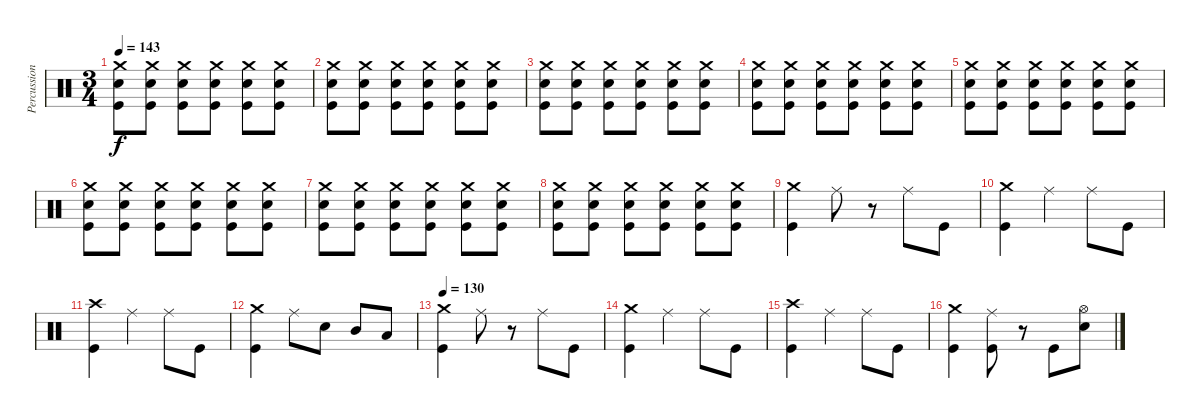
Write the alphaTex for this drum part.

\track ("Percussion" "Percussion") {instrument percussion}
\staff {score}
\articulation defaults
\ts (3 4)
\tempo 143
\clef neutral
\ks c
("Crash medium (hit)" "Kick (hit)" "Electric Snare (hit)").8{dy f} ("Crash medium (hit)" "Kick (hit)" "Electric Snare (hit)").8 ("Crash medium (hit)" "Kick (hit)" "Electric Snare (hit)").8 ("Crash medium (hit)" "Kick (hit)" "Electric Snare (hit)").8 ("Crash medium (hit)" "Kick (hit)" "Electric Snare (hit)").8 ("Crash medium (hit)" "Kick (hit)" "Electric Snare (hit)").8 |
("Crash medium (hit)" "Kick (hit)" "Electric Snare (hit)").8 ("Crash medium (hit)" "Kick (hit)" "Electric Snare (hit)").8 ("Crash medium (hit)" "Kick (hit)" "Electric Snare (hit)").8 ("Crash medium (hit)" "Kick (hit)" "Electric Snare (hit)").8 ("Crash medium (hit)" "Kick (hit)" "Electric Snare (hit)").8 ("Crash medium (hit)" "Kick (hit)" "Electric Snare (hit)").8 |
("Crash medium (hit)" "Kick (hit)" "Electric Snare (hit)").8 ("Crash medium (hit)" "Kick (hit)" "Electric Snare (hit)").8 ("Crash medium (hit)" "Kick (hit)" "Electric Snare (hit)").8 ("Crash medium (hit)" "Kick (hit)" "Electric Snare (hit)").8 ("Crash medium (hit)" "Kick (hit)" "Electric Snare (hit)").8 ("Crash medium (hit)" "Kick (hit)" "Electric Snare (hit)").8 |
("Crash medium (hit)" "Kick (hit)" "Electric Snare (hit)").8 ("Crash medium (hit)" "Kick (hit)" "Electric Snare (hit)").8 ("Crash medium (hit)" "Kick (hit)" "Electric Snare (hit)").8 ("Crash medium (hit)" "Kick (hit)" "Electric Snare (hit)").8 ("Crash medium (hit)" "Kick (hit)" "Electric Snare (hit)").8 ("Crash medium (hit)" "Kick (hit)" "Electric Snare (hit)").8 |
("Crash medium (hit)" "Kick (hit)" "Electric Snare (hit)").8 ("Crash medium (hit)" "Kick (hit)" "Electric Snare (hit)").8 ("Crash medium (hit)" "Kick (hit)" "Electric Snare (hit)").8 ("Crash medium (hit)" "Kick (hit)" "Electric Snare (hit)").8 ("Crash medium (hit)" "Kick (hit)" "Electric Snare (hit)").8 ("Crash medium (hit)" "Kick (hit)" "Electric Snare (hit)").8 |
("Crash medium (hit)" "Kick (hit)" "Electric Snare (hit)").8 ("Crash medium (hit)" "Kick (hit)" "Electric Snare (hit)").8 ("Crash medium (hit)" "Kick (hit)" "Electric Snare (hit)").8 ("Crash medium (hit)" "Kick (hit)" "Electric Snare (hit)").8 ("Crash medium (hit)" "Kick (hit)" "Electric Snare (hit)").8 ("Crash medium (hit)" "Kick (hit)" "Electric Snare (hit)").8 |
("Crash medium (hit)" "Kick (hit)" "Electric Snare (hit)").8 ("Crash medium (hit)" "Kick (hit)" "Electric Snare (hit)").8 ("Crash medium (hit)" "Kick (hit)" "Electric Snare (hit)").8 ("Crash medium (hit)" "Kick (hit)" "Electric Snare (hit)").8 ("Crash medium (hit)" "Kick (hit)" "Electric Snare (hit)").8 ("Crash medium (hit)" "Kick (hit)" "Electric Snare (hit)").8 |
("Crash medium (hit)" "Kick (hit)" "Electric Snare (hit)").8 ("Crash medium (hit)" "Kick (hit)" "Electric Snare (hit)").8 ("Crash medium (hit)" "Kick (hit)" "Electric Snare (hit)").8 ("Crash medium (hit)" "Kick (hit)" "Electric Snare (hit)").8 ("Crash medium (hit)" "Kick (hit)" "Electric Snare (hit)").8 ("Crash medium (hit)" "Kick (hit)" "Electric Snare (hit)").8 |
("Crash medium (hit)" "Kick (hit)").4 "Ride (middle)".8 r.8 "Ride (middle)".8 "Kick (hit)".8 |
("Crash medium (hit)" "Kick (hit)").4 "Ride (middle)".4 "Ride (middle)".8 "Kick (hit)".8 |
("Crash high (hit)" "Kick (hit)").4 "Ride (middle)".4 "Ride (middle)".8 "Kick (hit)".8 |
("Crash medium (hit)" "Kick (hit)").4 "Ride (middle)".8 "Electric Snare (hit)".8 "Mid Tom (hit)".8 "Low Tom (hit)".8 |
\tempo 130
("Crash medium (hit)" "Kick (hit)").4 "Ride (middle)".8 r.8 "Ride (middle)".8 "Kick (hit)".8 |
("Crash medium (hit)" "Kick (hit)").4 "Ride (middle)".4 "Ride (middle)".8 "Kick (hit)".8 |
("Crash high (hit)" "Kick (hit)").4 "Ride (middle)".4 "Ride (middle)".8 "Kick (hit)".8 |
("Crash medium (hit)" "Kick (hit)").4 ("Ride (middle)" "Kick (hit)").8 r.8 "Kick (hit)".8 ("Hi-Hat (open)" "Electric Snare (hit)").8
